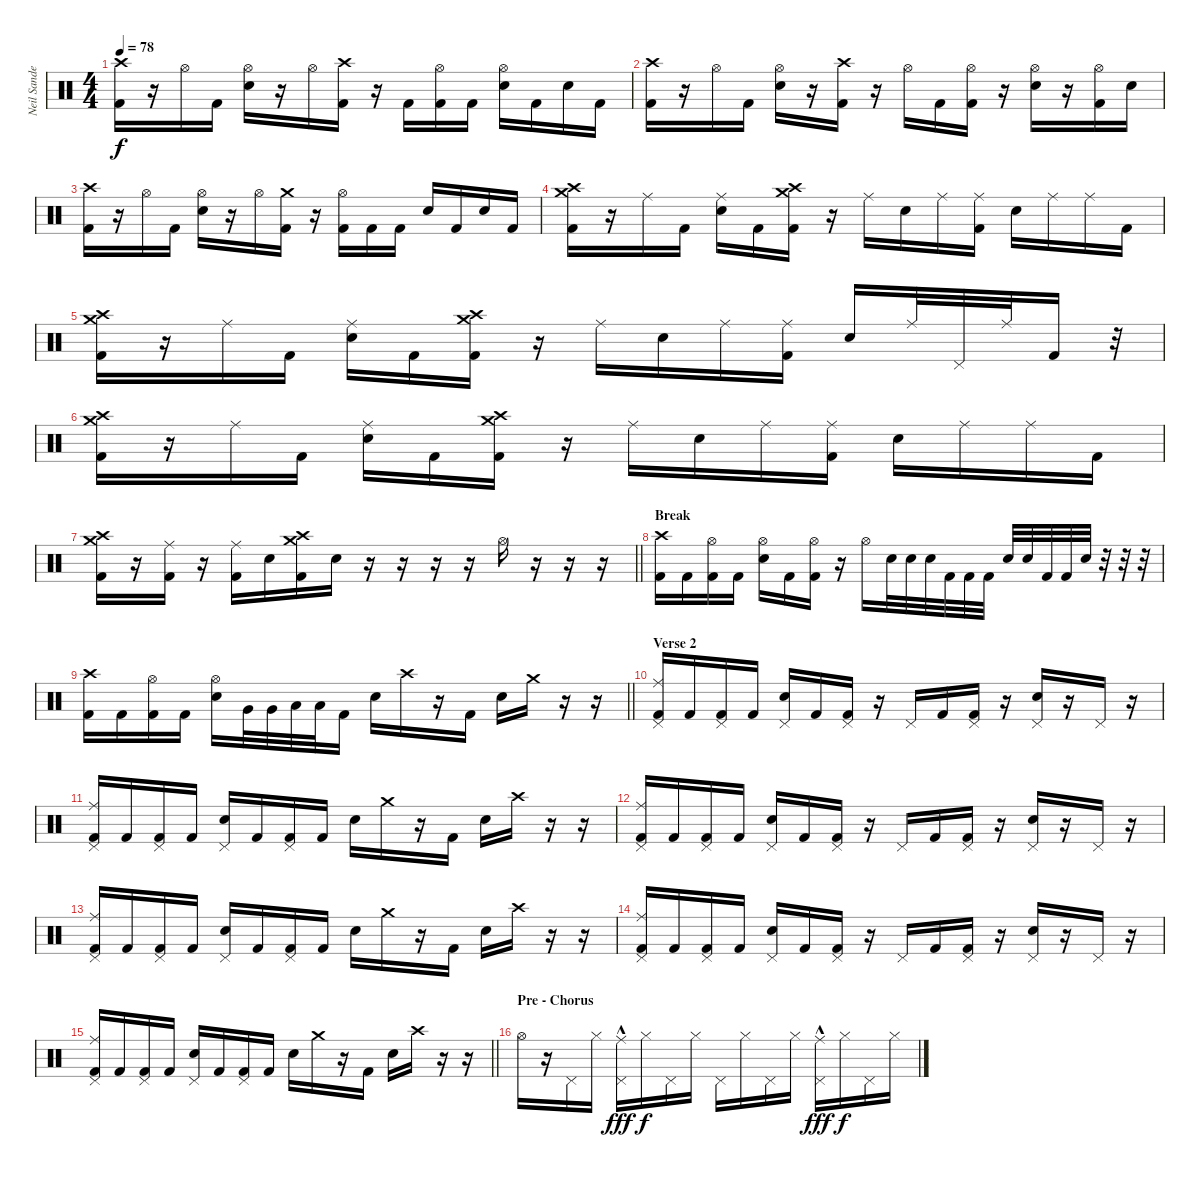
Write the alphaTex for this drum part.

\track ("Neil Sanderson (Percussion)" "Neil Sande") {instrument percussion}
\staff {score}
\articulation defaults
\ts (4 4)
\tempo 78
\clef neutral
\ks c
("Crash high (hit)" "Kick (hit) 2").16{dy f} r.16 "Hi-Hat (open)".16 "Kick (hit) 2".16 ("Hi-Hat (open)" "Electric Snare (hit)").16 r.16 "Hi-Hat (open)".16 ("Crash high (hit)" "Kick (hit) 2").16 r.16 "Kick (hit) 2".16 ("Hi-Hat (open)" "Kick (hit) 2").16 "Kick (hit) 2".16 ("Hi-Hat (open)" "Electric Snare (hit)").16 "Kick (hit) 2".16 "Electric Snare (hit)".16 "Kick (hit) 2".16 |
("Crash high (hit)" "Kick (hit) 2").16 r.16 "Hi-Hat (open)".16 "Kick (hit) 2".16 ("Hi-Hat (open)" "Electric Snare (hit)").16 r.16 ("Crash high (hit)" "Kick (hit) 2").16 r.16 "Hi-Hat (open)".16 "Kick (hit) 2".16 ("Hi-Hat (open)" "Kick (hit) 2").16 r.16 ("Hi-Hat (open)" "Electric Snare (hit)").16 r.16 ("Hi-Hat (open)" "Kick (hit) 2").16 "Electric Snare (hit)".16 |
("Crash high (hit)" "Kick (hit) 2").16 r.16 "Hi-Hat (open)".16 "Kick (hit) 2".16 ("Hi-Hat (open)" "Electric Snare (hit)").16 r.16 "Hi-Hat (open)".16 ("Crash medium (hit)" "Kick (hit) 2").16 r.16 ("Hi-Hat (open)" "Kick (hit) 2").16 "Kick (hit) 2".16 "Kick (hit) 2".16 "Electric Snare (hit)".16 "Kick (hit) 2".16 "Electric Snare (hit)".16 "Kick (hit) 2".16 |
("Crash medium (hit)" "Crash high (hit)" "Kick (hit) 2").16 r.16 "Ride (middle)".16 "Kick (hit) 2".16 ("Ride (middle)" "Electric Snare (hit)").16 "Kick (hit) 2".16 ("Crash medium (hit)" "Crash high (hit)" "Kick (hit) 2").16 r.16 "Ride (middle)".16 "Electric Snare (hit)".16 "Ride (middle)".16 ("Ride (middle)" "Kick (hit) 2").16 "Electric Snare (hit)".16 "Ride (middle)".16 "Ride (middle)".16 "Kick (hit) 2".16 |
("Crash medium (hit)" "Crash high (hit)" "Kick (hit) 2").16 r.16 "Ride (middle)".16 "Kick (hit) 2".16 ("Ride (middle)" "Electric Snare (hit)").16 "Kick (hit) 2".16 ("Crash medium (hit)" "Crash high (hit)" "Kick (hit) 2").16 r.16 "Ride (middle)".16 "Electric Snare (hit)".16 "Ride (middle)".16 ("Ride (middle)" "Kick (hit) 2").16 "Electric Snare (hit)".16 "Ride (middle)".32 "Pedal Hi-Hat (hit)".32 "Ride (middle)".32 "Kick (hit) 2".16 r.32 |
("Crash medium (hit)" "Crash high (hit)" "Kick (hit) 2").16 r.16 "Ride (middle)".16 "Kick (hit) 2".16 ("Ride (middle)" "Electric Snare (hit)").16 "Kick (hit) 2".16 ("Crash medium (hit)" "Crash high (hit)" "Kick (hit) 2").16 r.16 "Ride (middle)".16 "Electric Snare (hit)".16 "Ride (middle)".16 ("Ride (middle)" "Kick (hit) 2").16 "Electric Snare (hit)".16 "Ride (middle)".16 "Ride (middle)".16 "Kick (hit) 2".16 |
\barLineRight lightlight
("Crash medium (hit)" "Crash high (hit)" "Kick (hit) 2").16 r.16 ("Ride (middle)" "Kick (hit) 2").16 r.16 ("Ride (middle)" "Kick (hit) 2").16 "Electric Snare (hit)".16 ("Crash medium (hit)" "Crash high (hit)" "Kick (hit) 2").16 "Electric Snare (hit)".16 r.16 r.16 r.16 r.16 "Hi-Hat (open)".16 r.16 r.16 r.16 |
\section ("" "Break")
("Crash high (hit)" "Kick (hit) 2").16 "Kick (hit) 2".16 ("Hi-Hat (open)" "Kick (hit) 2").16 "Kick (hit) 2".16 ("Hi-Hat (open)" "Electric Snare (hit)").16 "Kick (hit) 2".16 ("Hi-Hat (open)" "Kick (hit) 2").16 r.16 "Hi-Hat (open)".16 "Electric Snare (hit)".32 "Electric Snare (hit)".32 "Electric Snare (hit)".32 "Kick (hit) 2".32 "Kick (hit) 2".32 "Kick (hit) 2".32 "Electric Snare (hit)".32 "Electric Snare (hit)".32 "Kick (hit) 2".32 "Kick (hit) 2".32 "Electric Snare (hit)".32 r.32 r.32 r.32 |
\barLineRight lightlight
("Crash high (hit)" "Kick (hit) 2").16 "Kick (hit) 2".16 ("Hi-Hat (open)" "Kick (hit) 2").16 "Kick (hit) 2".16 ("Hi-Hat (open)" "Electric Snare (hit)").16 "Very Low Tom (hit)".32 "Very Low Tom (hit)".32 "Low Floor Tom (hit)".32 "Low Floor Tom (hit)".32 "Kick (hit) 2".16 "Electric Snare (hit)".16 "Crash high (hit)".16 r.16 "Kick (hit) 2".16 "Electric Snare (hit)".16 "Crash medium (hit)".16 r.16 r.16 |
\section ("" "Verse 2")
("Pedal Hi-Hat (hit)" "Ride (middle)" "Kick (hit) 2").16 "Kick (hit) 2".16 ("Pedal Hi-Hat (hit)" "Kick (hit) 2").16 "Kick (hit) 2".16 ("Pedal Hi-Hat (hit)" "Electric Snare (hit)").16 "Kick (hit) 2".16 ("Pedal Hi-Hat (hit)" "Kick (hit) 2").16 r.16 "Pedal Hi-Hat (hit)".16 "Kick (hit) 2".16 ("Pedal Hi-Hat (hit)" "Kick (hit) 2").16 r.16 ("Pedal Hi-Hat (hit)" "Electric Snare (hit)").16 r.16 "Pedal Hi-Hat (hit)".16 r.16 |
("Pedal Hi-Hat (hit)" "Ride (middle)" "Kick (hit) 2").16 "Kick (hit) 2".16 ("Pedal Hi-Hat (hit)" "Kick (hit) 2").16 "Kick (hit) 2".16 ("Pedal Hi-Hat (hit)" "Electric Snare (hit)").16 "Kick (hit) 2".16 ("Pedal Hi-Hat (hit)" "Kick (hit) 2").16 "Kick (hit) 2".16 "Electric Snare (hit)".16 "Crash medium (hit)".16 r.16 "Kick (hit) 2".16 "Electric Snare (hit)".16 "Crash high (hit)".16 r.16 r.16 |
("Pedal Hi-Hat (hit)" "Ride (middle)" "Kick (hit) 2").16 "Kick (hit) 2".16 ("Pedal Hi-Hat (hit)" "Kick (hit) 2").16 "Kick (hit) 2".16 ("Pedal Hi-Hat (hit)" "Electric Snare (hit)").16 "Kick (hit) 2".16 ("Pedal Hi-Hat (hit)" "Kick (hit) 2").16 r.16 "Pedal Hi-Hat (hit)".16 "Kick (hit) 2".16 ("Pedal Hi-Hat (hit)" "Kick (hit) 2").16 r.16 ("Pedal Hi-Hat (hit)" "Electric Snare (hit)").16 r.16 "Pedal Hi-Hat (hit)".16 r.16 |
("Pedal Hi-Hat (hit)" "Ride (middle)" "Kick (hit) 2").16 "Kick (hit) 2".16 ("Pedal Hi-Hat (hit)" "Kick (hit) 2").16 "Kick (hit) 2".16 ("Pedal Hi-Hat (hit)" "Electric Snare (hit)").16 "Kick (hit) 2".16 ("Pedal Hi-Hat (hit)" "Kick (hit) 2").16 "Kick (hit) 2".16 "Electric Snare (hit)".16 "Crash medium (hit)".16 r.16 "Kick (hit) 2".16 "Electric Snare (hit)".16 "Crash high (hit)".16 r.16 r.16 |
("Pedal Hi-Hat (hit)" "Ride (middle)" "Kick (hit) 2").16 "Kick (hit) 2".16 ("Pedal Hi-Hat (hit)" "Kick (hit) 2").16 "Kick (hit) 2".16 ("Pedal Hi-Hat (hit)" "Electric Snare (hit)").16 "Kick (hit) 2".16 ("Pedal Hi-Hat (hit)" "Kick (hit) 2").16 r.16 "Pedal Hi-Hat (hit)".16 "Kick (hit) 2".16 ("Pedal Hi-Hat (hit)" "Kick (hit) 2").16 r.16 ("Pedal Hi-Hat (hit)" "Electric Snare (hit)").16 r.16 "Pedal Hi-Hat (hit)".16 r.16 |
\barLineRight lightlight
("Pedal Hi-Hat (hit)" "Ride (middle)" "Kick (hit) 2").16 "Kick (hit) 2".16 ("Pedal Hi-Hat (hit)" "Kick (hit) 2").16 "Kick (hit) 2".16 ("Pedal Hi-Hat (hit)" "Electric Snare (hit)").16 "Kick (hit) 2".16 ("Pedal Hi-Hat (hit)" "Kick (hit) 2").16 "Kick (hit) 2".16 "Electric Snare (hit)".16 "Crash medium (hit)".16 r.16 "Kick (hit) 2".16 "Electric Snare (hit)".16 "Crash high (hit)".16 r.16 r.16 |
\section ("" "Pre - Chorus")
"Hi-Hat (open)".16 r.16 "Pedal Hi-Hat (hit)".16 "Hi-Hat (closed)".16 ("Pedal Hi-Hat (hit)" "Ride (middle)"{hac}).16{dy fff} "Hi-Hat (closed)".16{dy f} "Pedal Hi-Hat (hit)".16 "Hi-Hat (closed)".16 "Pedal Hi-Hat (hit)".16 "Hi-Hat (closed)".16 "Pedal Hi-Hat (hit)".16 "Hi-Hat (closed)".16 ("Pedal Hi-Hat (hit)" "Ride (middle)"{hac}).16{dy fff} "Hi-Hat (closed)".16{dy f} "Pedal Hi-Hat (hit)".16 "Hi-Hat (closed)".16
